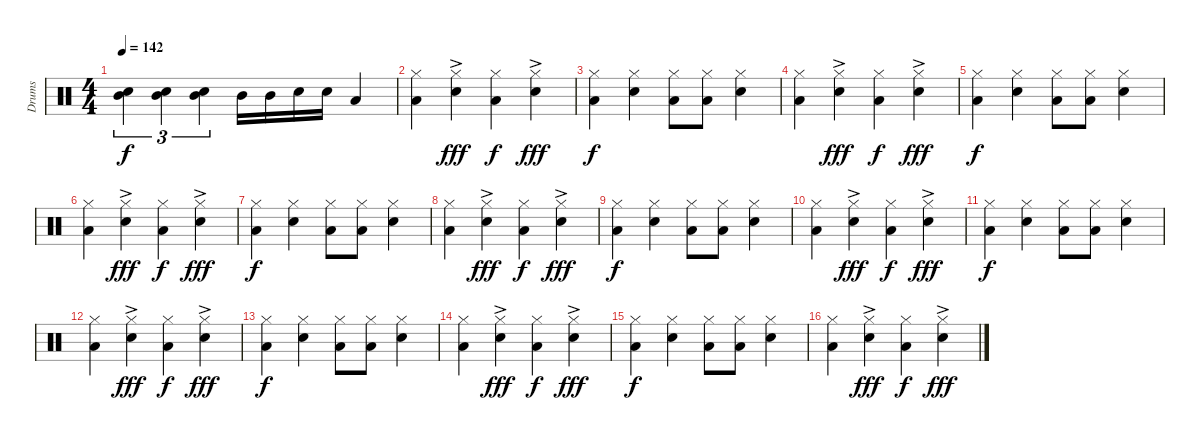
\track ("Drums" "Drums") {instrument percussion}
\staff {score}
\articulation defaults
\ts (4 4)
\tempo 142
\clef neutral
\ks aminor
("Mid Tom (hit)" "Snare (hit) 2").4{tu (3 2) dy f} ("Mid Tom (hit)" "Snare (hit) 2").4{tu (3 2)} ("Mid Tom (hit)" "Snare (hit) 2").4{tu (3 2)} "Mid Tom (hit)".16 "Mid Tom (hit)".16 "Snare (hit) 2".16 "Snare (hit) 2".16 "Low Floor Tom (hit)".4 |
("Hi-Hat (closed)" "Low Floor Tom (hit)").4 ("Hi-Hat (closed)"{ac} "Snare (hit) 2").4{dy fff} ("Hi-Hat (closed)" "Low Floor Tom (hit)").4{dy f} ("Hi-Hat (closed)"{ac} "Snare (hit) 2").4{dy fff} |
("Hi-Hat (closed)" "Low Floor Tom (hit)").4{dy f} ("Hi-Hat (closed)" "Snare (hit) 2").4 ("Hi-Hat (closed)" "Low Floor Tom (hit)").8 ("Hi-Hat (closed)" "Low Floor Tom (hit)").8 ("Hi-Hat (closed)" "Snare (hit) 2").4 |
("Hi-Hat (closed)" "Low Floor Tom (hit)").4 ("Hi-Hat (closed)"{ac} "Snare (hit) 2").4{dy fff} ("Hi-Hat (closed)" "Low Floor Tom (hit)").4{dy f} ("Hi-Hat (closed)"{ac} "Snare (hit) 2").4{dy fff} |
("Hi-Hat (closed)" "Low Floor Tom (hit)").4{dy f} ("Hi-Hat (closed)" "Snare (hit) 2").4 ("Hi-Hat (closed)" "Low Floor Tom (hit)").8 ("Hi-Hat (closed)" "Low Floor Tom (hit)").8 ("Hi-Hat (closed)" "Snare (hit) 2").4 |
("Hi-Hat (closed)" "Low Floor Tom (hit)").4 ("Hi-Hat (closed)"{ac} "Snare (hit) 2").4{dy fff} ("Hi-Hat (closed)" "Low Floor Tom (hit)").4{dy f} ("Hi-Hat (closed)"{ac} "Snare (hit) 2").4{dy fff} |
("Hi-Hat (closed)" "Low Floor Tom (hit)").4{dy f} ("Hi-Hat (closed)" "Snare (hit) 2").4 ("Hi-Hat (closed)" "Low Floor Tom (hit)").8 ("Hi-Hat (closed)" "Low Floor Tom (hit)").8 ("Hi-Hat (closed)" "Snare (hit) 2").4 |
("Hi-Hat (closed)" "Low Floor Tom (hit)").4 ("Hi-Hat (closed)"{ac} "Snare (hit) 2").4{dy fff} ("Hi-Hat (closed)" "Low Floor Tom (hit)").4{dy f} ("Hi-Hat (closed)"{ac} "Snare (hit) 2").4{dy fff} |
("Hi-Hat (closed)" "Low Floor Tom (hit)").4{dy f} ("Hi-Hat (closed)" "Snare (hit) 2").4 ("Hi-Hat (closed)" "Low Floor Tom (hit)").8 ("Hi-Hat (closed)" "Low Floor Tom (hit)").8 ("Hi-Hat (closed)" "Snare (hit) 2").4 |
("Hi-Hat (closed)" "Low Floor Tom (hit)").4 ("Hi-Hat (closed)"{ac} "Snare (hit) 2").4{dy fff} ("Hi-Hat (closed)" "Low Floor Tom (hit)").4{dy f} ("Hi-Hat (closed)"{ac} "Snare (hit) 2").4{dy fff} |
("Hi-Hat (closed)" "Low Floor Tom (hit)").4{dy f} ("Hi-Hat (closed)" "Snare (hit) 2").4 ("Hi-Hat (closed)" "Low Floor Tom (hit)").8 ("Hi-Hat (closed)" "Low Floor Tom (hit)").8 ("Hi-Hat (closed)" "Snare (hit) 2").4 |
("Hi-Hat (closed)" "Low Floor Tom (hit)").4 ("Hi-Hat (closed)"{ac} "Snare (hit) 2").4{dy fff} ("Hi-Hat (closed)" "Low Floor Tom (hit)").4{dy f} ("Hi-Hat (closed)"{ac} "Snare (hit) 2").4{dy fff} |
("Hi-Hat (closed)" "Low Floor Tom (hit)").4{dy f} ("Hi-Hat (closed)" "Snare (hit) 2").4 ("Hi-Hat (closed)" "Low Floor Tom (hit)").8 ("Hi-Hat (closed)" "Low Floor Tom (hit)").8 ("Hi-Hat (closed)" "Snare (hit) 2").4 |
("Hi-Hat (closed)" "Low Floor Tom (hit)").4 ("Hi-Hat (closed)"{ac} "Snare (hit) 2").4{dy fff} ("Hi-Hat (closed)" "Low Floor Tom (hit)").4{dy f} ("Hi-Hat (closed)"{ac} "Snare (hit) 2").4{dy fff} |
("Hi-Hat (closed)" "Low Floor Tom (hit)").4{dy f} ("Hi-Hat (closed)" "Snare (hit) 2").4 ("Hi-Hat (closed)" "Low Floor Tom (hit)").8 ("Hi-Hat (closed)" "Low Floor Tom (hit)").8 ("Hi-Hat (closed)" "Snare (hit) 2").4 |
("Hi-Hat (closed)" "Low Floor Tom (hit)").4 ("Hi-Hat (closed)"{ac} "Snare (hit) 2").4{dy fff} ("Hi-Hat (closed)" "Low Floor Tom (hit)").4{dy f} ("Hi-Hat (closed)"{ac} "Snare (hit) 2").4{dy fff}
